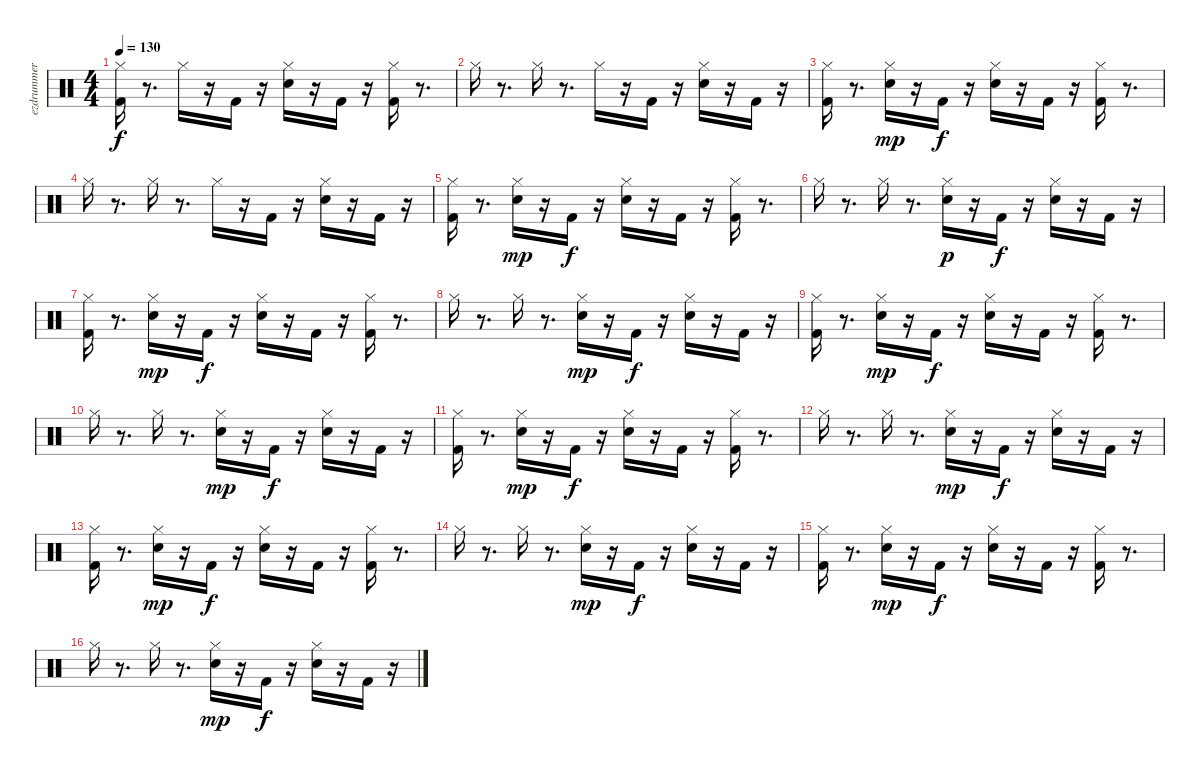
\track ("ezdrummer 01" "ezdrummer ") {instrument percussion}
\staff {score}
\articulation defaults
\ts (4 4)
\tempo 130
\clef neutral
\ks c
("Kick (hit) 2" "Hi-Hat (closed)").16{dy f} r.8{d} "Hi-Hat (closed)".16 r.16 "Kick (hit) 2".16 r.16 ("Snare (hit) 2" "Hi-Hat (closed)").16 r.16 "Kick (hit) 2".16 r.16 ("Kick (hit) 2" "Hi-Hat (closed)").16 r.8{d} |
"Hi-Hat (closed)".16 r.8{d} "Hi-Hat (closed)".16 r.8{d} "Hi-Hat (closed)".16 r.16 "Kick (hit) 2".16 r.16 ("Snare (hit) 2" "Hi-Hat (closed)").16 r.16 "Kick (hit) 2".16 r.16 |
("Kick (hit) 2" "Hi-Hat (closed)").16 r.8{d} ("Snare (hit) 2" "Hi-Hat (closed)").16{dy mp} r.16 "Kick (hit) 2".16{dy f} r.16 ("Snare (hit) 2" "Hi-Hat (closed)").16 r.16 "Kick (hit) 2".16 r.16 ("Kick (hit) 2" "Hi-Hat (closed)").16 r.8{d} |
"Hi-Hat (closed)".16 r.8{d} "Hi-Hat (closed)".16 r.8{d} "Hi-Hat (closed)".16 r.16 "Kick (hit) 2".16 r.16 ("Snare (hit) 2" "Hi-Hat (closed)").16 r.16 "Kick (hit) 2".16 r.16 |
("Kick (hit) 2" "Hi-Hat (closed)").16 r.8{d} ("Snare (hit) 2" "Hi-Hat (closed)").16{dy mp} r.16 "Kick (hit) 2".16{dy f} r.16 ("Snare (hit) 2" "Hi-Hat (closed)").16 r.16 "Kick (hit) 2".16 r.16 ("Kick (hit) 2" "Hi-Hat (closed)").16 r.8{d} |
"Hi-Hat (closed)".16 r.8{d} "Hi-Hat (closed)".16 r.8{d} ("Snare (hit) 2" "Hi-Hat (closed)").16{dy p} r.16 "Kick (hit) 2".16{dy f} r.16 ("Snare (hit) 2" "Hi-Hat (closed)").16 r.16 "Kick (hit) 2".16 r.16 |
("Kick (hit) 2" "Hi-Hat (closed)").16 r.8{d} ("Snare (hit) 2" "Hi-Hat (closed)").16{dy mp} r.16 "Kick (hit) 2".16{dy f} r.16 ("Snare (hit) 2" "Hi-Hat (closed)").16 r.16 "Kick (hit) 2".16 r.16 ("Kick (hit) 2" "Hi-Hat (closed)").16 r.8{d} |
"Hi-Hat (closed)".16 r.8{d} "Hi-Hat (closed)".16 r.8{d} ("Snare (hit) 2" "Hi-Hat (closed)").16{dy mp} r.16 "Kick (hit) 2".16{dy f} r.16 ("Snare (hit) 2" "Hi-Hat (closed)").16 r.16 "Kick (hit) 2".16 r.16 |
("Kick (hit) 2" "Hi-Hat (closed)").16 r.8{d} ("Snare (hit) 2" "Hi-Hat (closed)").16{dy mp} r.16 "Kick (hit) 2".16{dy f} r.16 ("Snare (hit) 2" "Hi-Hat (closed)").16 r.16 "Kick (hit) 2".16 r.16 ("Kick (hit) 2" "Hi-Hat (closed)").16 r.8{d} |
"Hi-Hat (closed)".16 r.8{d} "Hi-Hat (closed)".16 r.8{d} ("Snare (hit) 2" "Hi-Hat (closed)").16{dy mp} r.16 "Kick (hit) 2".16{dy f} r.16 ("Snare (hit) 2" "Hi-Hat (closed)").16 r.16 "Kick (hit) 2".16 r.16 |
("Kick (hit) 2" "Hi-Hat (closed)").16 r.8{d} ("Snare (hit) 2" "Hi-Hat (closed)").16{dy mp} r.16 "Kick (hit) 2".16{dy f} r.16 ("Snare (hit) 2" "Hi-Hat (closed)").16 r.16 "Kick (hit) 2".16 r.16 ("Kick (hit) 2" "Hi-Hat (closed)").16 r.8{d} |
"Hi-Hat (closed)".16 r.8{d} "Hi-Hat (closed)".16 r.8{d} ("Snare (hit) 2" "Hi-Hat (closed)").16{dy mp} r.16 "Kick (hit) 2".16{dy f} r.16 ("Snare (hit) 2" "Hi-Hat (closed)").16 r.16 "Kick (hit) 2".16 r.16 |
("Kick (hit) 2" "Hi-Hat (closed)").16 r.8{d} ("Snare (hit) 2" "Hi-Hat (closed)").16{dy mp} r.16 "Kick (hit) 2".16{dy f} r.16 ("Snare (hit) 2" "Hi-Hat (closed)").16 r.16 "Kick (hit) 2".16 r.16 ("Kick (hit) 2" "Hi-Hat (closed)").16 r.8{d} |
"Hi-Hat (closed)".16 r.8{d} "Hi-Hat (closed)".16 r.8{d} ("Snare (hit) 2" "Hi-Hat (closed)").16{dy mp} r.16 "Kick (hit) 2".16{dy f} r.16 ("Snare (hit) 2" "Hi-Hat (closed)").16 r.16 "Kick (hit) 2".16 r.16 |
("Kick (hit) 2" "Hi-Hat (closed)").16 r.8{d} ("Snare (hit) 2" "Hi-Hat (closed)").16{dy mp} r.16 "Kick (hit) 2".16{dy f} r.16 ("Snare (hit) 2" "Hi-Hat (closed)").16 r.16 "Kick (hit) 2".16 r.16 ("Kick (hit) 2" "Hi-Hat (closed)").16 r.8{d} |
"Hi-Hat (closed)".16 r.8{d} "Hi-Hat (closed)".16 r.8{d} ("Snare (hit) 2" "Hi-Hat (closed)").16{dy mp} r.16 "Kick (hit) 2".16{dy f} r.16 ("Snare (hit) 2" "Hi-Hat (closed)").16 r.16 "Kick (hit) 2".16 r.16
